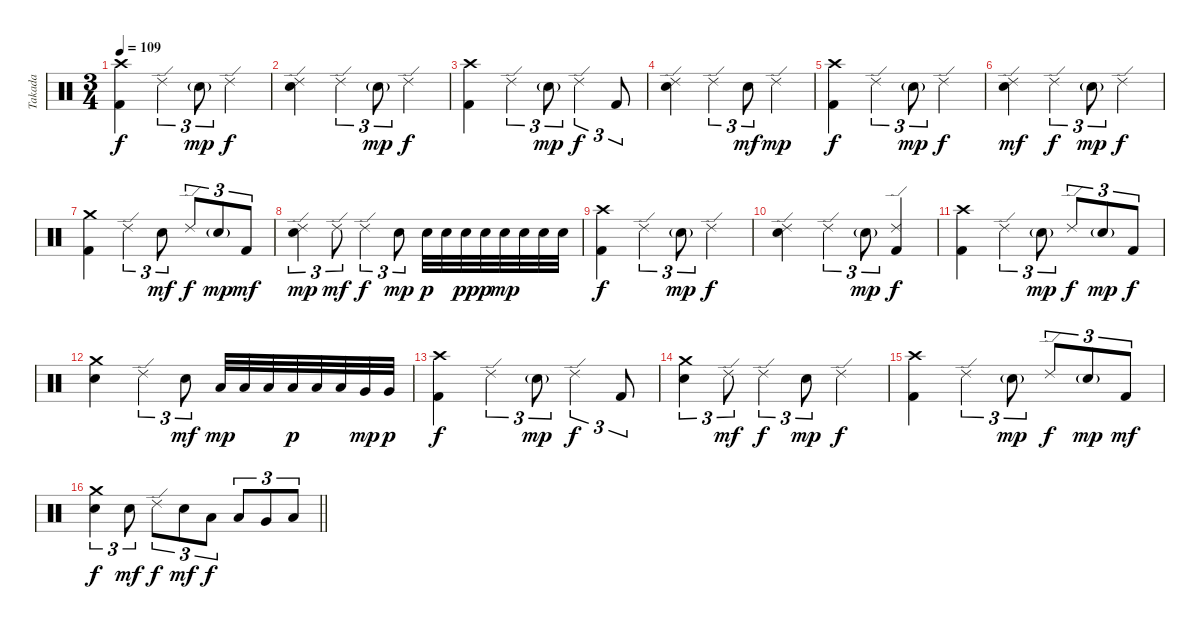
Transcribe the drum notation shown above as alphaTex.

\track ("Takada" "Takada") {instrument percussion}
\staff {score}
\articulation defaults
\ts (3 4)
\tempo 109
\clef neutral
\ks c
("Crash high (hit)" "Kick (hit) 2").4{dy f} "Ride (edge) 2".4{tu (3 2)} "Electric Snare (hit)"{g}.8{tu (3 2) dy mp} "Ride (edge) 2".4{dy f} |
("Ride (edge) 2" "Electric Snare (hit)").4 "Ride (edge) 2".4{tu (3 2)} "Electric Snare (hit)"{g}.8{tu (3 2) dy mp} "Ride (edge) 2".4{dy f} |
("Crash high (hit)" "Kick (hit) 2").4 "Ride (edge) 2".4{tu (3 2)} "Electric Snare (hit)"{g}.8{tu (3 2) dy mp} "Ride (edge) 2".4{tu (3 2) dy f} "Kick (hit) 2".8{tu (3 2)} |
("Ride (edge) 2" "Electric Snare (hit)").4 "Ride (edge) 2".4{tu (3 2)} "Electric Snare (hit)".8{tu (3 2) dy mf} "Ride (edge) 2".4{dy mp} |
("Crash high (hit)" "Kick (hit) 2").4{dy f} "Ride (edge) 2".4{tu (3 2)} "Electric Snare (hit)"{g}.8{tu (3 2) dy mp} "Ride (edge) 2".4{dy f} |
("Ride (edge) 2" "Electric Snare (hit)").4{dy mf} "Ride (edge) 2".4{tu (3 2) dy f} "Electric Snare (hit)"{g}.8{tu (3 2) dy mp} "Ride (edge) 2".4{dy f} |
("Crash medium (hit)" "Kick (hit) 2").4 "Ride (edge) 2".4{tu (3 2)} "Electric Snare (hit)".8{tu (3 2) dy mf} "Ride (edge) 2".8{tu (3 2) dy f} "Electric Snare (hit)"{g}.8{tu (3 2) dy mp} "Kick (hit) 2".8{tu (3 2) dy mf} |
("Ride (edge) 2" "Electric Snare (hit)").4{tu (3 2) dy mp} "Ride (edge) 2".8{tu (3 2) dy mf} "Ride (edge) 2".4{tu (3 2) dy f} "Electric Snare (hit)".8{tu (3 2) dy mp} "Electric Snare (hit)".32{dy p} "Electric Snare (hit)".32 "Electric Snare (hit)".32{dy pp} "Electric Snare (hit)".32{dy p} "Electric Snare (hit)".32{dy mp} "Electric Snare (hit)".32 "Electric Snare (hit)".32 "Electric Snare (hit)".32 |
("Crash high (hit)" "Kick (hit) 2").4{dy f} "Ride (edge) 2".4{tu (3 2)} "Electric Snare (hit)"{g}.8{tu (3 2) dy mp} "Ride (edge) 2".4{dy f} |
("Ride (edge) 2" "Electric Snare (hit)").4 "Ride (edge) 2".4{tu (3 2)} "Electric Snare (hit)"{g}.8{tu (3 2) dy mp} ("Ride (edge) 2" "Kick (hit) 2").4{dy f} |
("Crash high (hit)" "Kick (hit) 2").4 "Ride (edge) 2".4{tu (3 2)} "Electric Snare (hit)"{g}.8{tu (3 2) dy mp} "Ride (edge) 2".8{tu (3 2) dy f} "Electric Snare (hit)"{g}.8{tu (3 2) dy mp} "Kick (hit) 2".8{tu (3 2) dy f} |
("Crash medium (hit)" "Electric Snare (hit)").4 "Ride (edge) 2".4{tu (3 2)} "Electric Snare (hit)".8{tu (3 2) dy mf} "Low Tom (hit)".32{dy mp} "Low Tom (hit)".32 "Low Tom (hit)".32 "Low Tom (hit)".32{dy p} "Low Tom (hit)".32 "Low Tom (hit)".32 "Very Low Tom (hit)".32{dy mp} "Very Low Tom (hit)".32{dy p} |
("Crash high (hit)" "Kick (hit) 2").4{dy f} "Ride (edge) 2".4{tu (3 2)} "Electric Snare (hit)"{g}.8{tu (3 2) dy mp} "Ride (edge) 2".4{tu (3 2) dy f} "Kick (hit) 2".8{tu (3 2)} |
("Crash medium (hit)" "Electric Snare (hit)").4{tu (3 2)} "Ride (edge) 2".8{tu (3 2) dy mf} "Ride (edge) 2".4{tu (3 2) dy f} "Electric Snare (hit)".8{tu (3 2) dy mp} "Ride (edge) 2".4{dy f} |
("Crash high (hit)" "Kick (hit) 2").4 "Ride (edge) 2".4{tu (3 2)} "Electric Snare (hit)"{g}.8{tu (3 2) dy mp} "Ride (edge) 2".8{tu (3 2) dy f} "Electric Snare (hit)"{g}.8{tu (3 2) dy mp} "Kick (hit) 2".8{tu (3 2) dy mf} |
\barLineRight lightlight
("Crash medium (hit)" "Electric Snare (hit)").4{tu (3 2) dy f} "Electric Snare (hit)".8{tu (3 2) dy mf} "Ride (edge) 2".8{tu (3 2) dy f} "Electric Snare (hit)".8{tu (3 2) dy mf} "Low Tom (hit)".8{tu (3 2) dy f} "Low Tom (hit)".8{tu (3 2)} "Very Low Tom (hit)".8{tu (3 2)} "Low Floor Tom (hit)".8{tu (3 2)}
